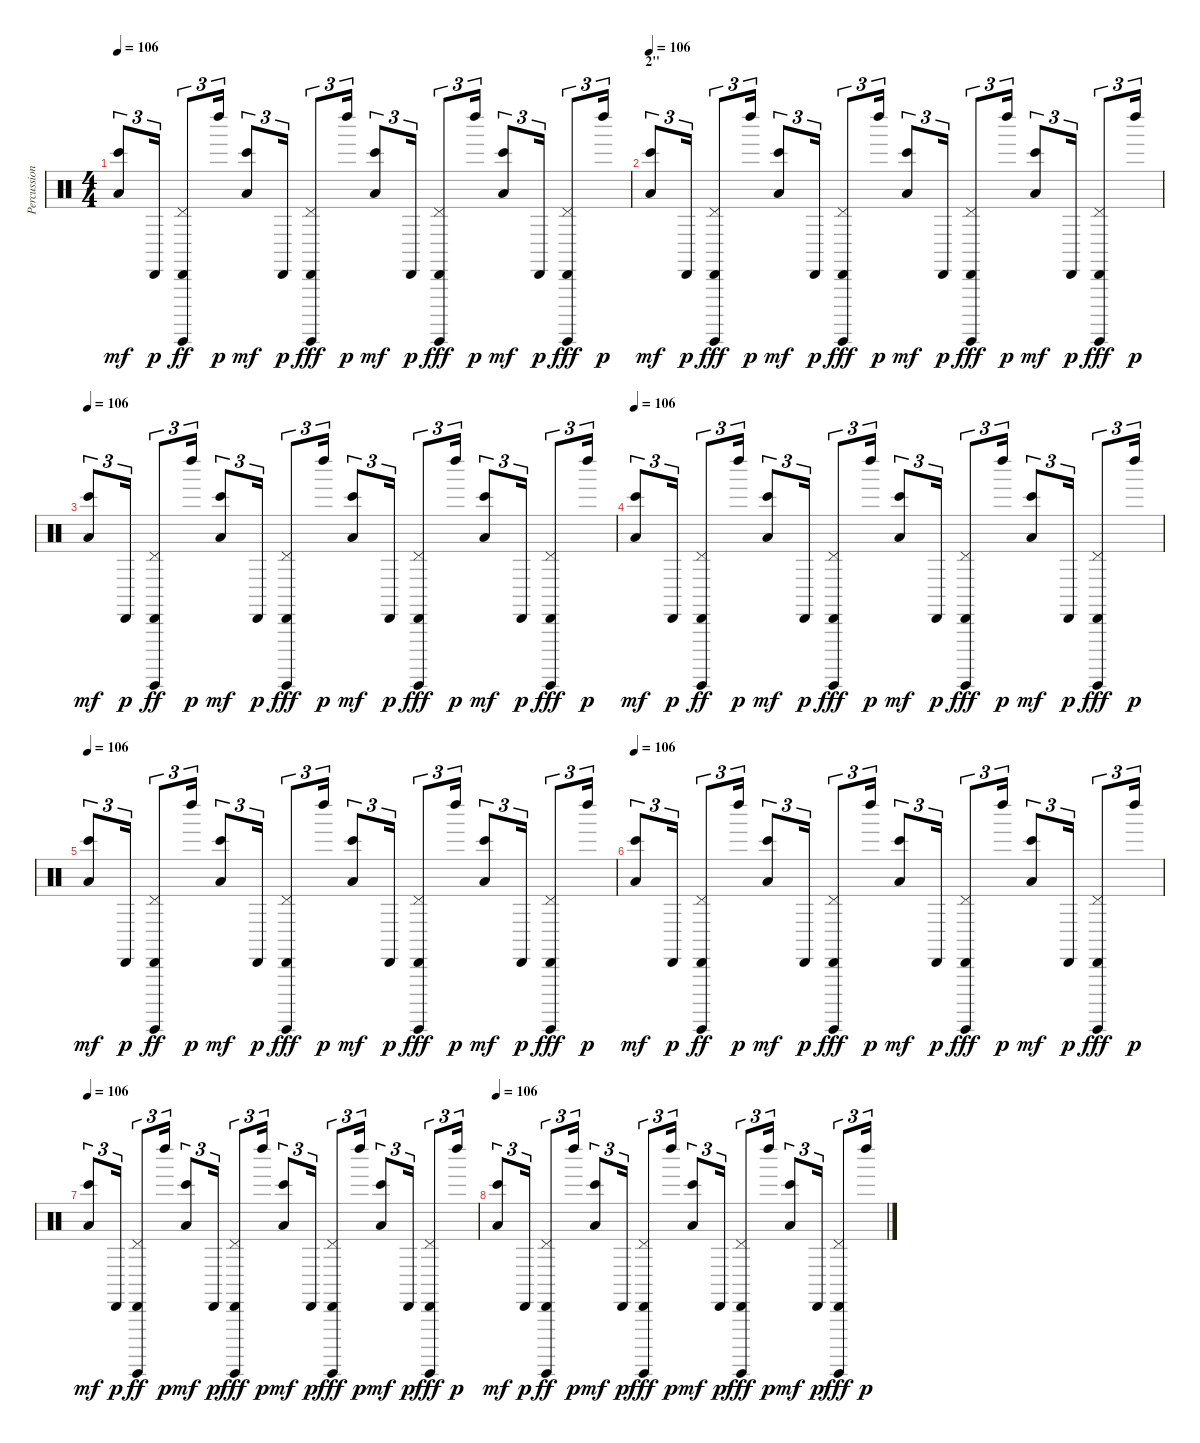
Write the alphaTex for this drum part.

\track ("Percussions" "Percussion") {instrument percussion}
\staff {score}
\articulation defaults
\ts (4 4)
\tempo 106
\clef neutral
\ks c
("Bongo High (hit)" "Low Floor Tom (hit)").8{tu (3 2) dy mf} "Cabasa (hit)".16{tu (3 2) dy p} ("Pedal Hi-Hat (hit)" "Cabasa (hit)" "Guiro (hit)").8{tu (3 2) dy ff} "Left Maraca (hit)".16{tu (3 2) dy p} ("Bongo High (hit)" "Low Floor Tom (hit)").8{tu (3 2) dy mf} "Cabasa (hit)".16{tu (3 2) dy p} ("Pedal Hi-Hat (hit)" "Cabasa (hit)" "Guiro (hit)").8{tu (3 2) dy fff} "Left Maraca (hit)".16{tu (3 2) dy p} ("Bongo High (hit)" "Low Floor Tom (hit)").8{tu (3 2) dy mf} "Cabasa (hit)".16{tu (3 2) dy p} ("Pedal Hi-Hat (hit)" "Cabasa (hit)" "Guiro (hit)").8{tu (3 2) dy fff} "Left Maraca (hit)".16{tu (3 2) dy p} ("Bongo High (hit)" "Low Floor Tom (hit)").8{tu (3 2) dy mf} "Cabasa (hit)".16{tu (3 2) dy p} ("Pedal Hi-Hat (hit)" "Cabasa (hit)" "Guiro (hit)").8{tu (3 2) dy fff} "Left Maraca (hit)".16{tu (3 2) dy p} |
\section ("" "2''")
\tempo 106
("Bongo High (hit)" "Low Floor Tom (hit)").8{tu (3 2) dy mf} "Cabasa (hit)".16{tu (3 2) dy p} ("Pedal Hi-Hat (hit)" "Cabasa (hit)" "Guiro (hit)").8{tu (3 2) dy fff} "Left Maraca (hit)".16{tu (3 2) dy p} ("Bongo High (hit)" "Low Floor Tom (hit)").8{tu (3 2) dy mf} "Cabasa (hit)".16{tu (3 2) dy p} ("Pedal Hi-Hat (hit)" "Cabasa (hit)" "Guiro (hit)").8{tu (3 2) dy fff} "Left Maraca (hit)".16{tu (3 2) dy p} ("Bongo High (hit)" "Low Floor Tom (hit)").8{tu (3 2) dy mf} "Cabasa (hit)".16{tu (3 2) dy p} ("Pedal Hi-Hat (hit)" "Cabasa (hit)" "Guiro (hit)").8{tu (3 2) dy fff} "Left Maraca (hit)".16{tu (3 2) dy p} ("Bongo High (hit)" "Low Floor Tom (hit)").8{tu (3 2) dy mf} "Cabasa (hit)".16{tu (3 2) dy p} ("Pedal Hi-Hat (hit)" "Cabasa (hit)" "Guiro (hit)").8{tu (3 2) dy fff} "Left Maraca (hit)".16{tu (3 2) dy p} |
\tempo 106
("Bongo High (hit)" "Low Floor Tom (hit)").8{tu (3 2) dy mf} "Cabasa (hit)".16{tu (3 2) dy p} ("Pedal Hi-Hat (hit)" "Cabasa (hit)" "Guiro (hit)").8{tu (3 2) dy ff} "Left Maraca (hit)".16{tu (3 2) dy p} ("Bongo High (hit)" "Low Floor Tom (hit)").8{tu (3 2) dy mf} "Cabasa (hit)".16{tu (3 2) dy p} ("Pedal Hi-Hat (hit)" "Cabasa (hit)" "Guiro (hit)").8{tu (3 2) dy fff} "Left Maraca (hit)".16{tu (3 2) dy p} ("Bongo High (hit)" "Low Floor Tom (hit)").8{tu (3 2) dy mf} "Cabasa (hit)".16{tu (3 2) dy p} ("Pedal Hi-Hat (hit)" "Cabasa (hit)" "Guiro (hit)").8{tu (3 2) dy fff} "Left Maraca (hit)".16{tu (3 2) dy p} ("Bongo High (hit)" "Low Floor Tom (hit)").8{tu (3 2) dy mf} "Cabasa (hit)".16{tu (3 2) dy p} ("Pedal Hi-Hat (hit)" "Cabasa (hit)" "Guiro (hit)").8{tu (3 2) dy fff} "Left Maraca (hit)".16{tu (3 2) dy p} |
\tempo 106
("Bongo High (hit)" "Low Floor Tom (hit)").8{tu (3 2) dy mf} "Cabasa (hit)".16{tu (3 2) dy p} ("Pedal Hi-Hat (hit)" "Cabasa (hit)" "Guiro (hit)").8{tu (3 2) dy ff} "Left Maraca (hit)".16{tu (3 2) dy p} ("Bongo High (hit)" "Low Floor Tom (hit)").8{tu (3 2) dy mf} "Cabasa (hit)".16{tu (3 2) dy p} ("Pedal Hi-Hat (hit)" "Cabasa (hit)" "Guiro (hit)").8{tu (3 2) dy fff} "Left Maraca (hit)".16{tu (3 2) dy p} ("Bongo High (hit)" "Low Floor Tom (hit)").8{tu (3 2) dy mf} "Cabasa (hit)".16{tu (3 2) dy p} ("Pedal Hi-Hat (hit)" "Cabasa (hit)" "Guiro (hit)").8{tu (3 2) dy fff} "Left Maraca (hit)".16{tu (3 2) dy p} ("Bongo High (hit)" "Low Floor Tom (hit)").8{tu (3 2) dy mf} "Cabasa (hit)".16{tu (3 2) dy p} ("Pedal Hi-Hat (hit)" "Cabasa (hit)" "Guiro (hit)").8{tu (3 2) dy fff} "Left Maraca (hit)".16{tu (3 2) dy p} |
\tempo 106
("Bongo High (hit)" "Low Floor Tom (hit)").8{tu (3 2) dy mf} "Cabasa (hit)".16{tu (3 2) dy p} ("Pedal Hi-Hat (hit)" "Cabasa (hit)" "Guiro (hit)").8{tu (3 2) dy ff} "Left Maraca (hit)".16{tu (3 2) dy p} ("Bongo High (hit)" "Low Floor Tom (hit)").8{tu (3 2) dy mf} "Cabasa (hit)".16{tu (3 2) dy p} ("Pedal Hi-Hat (hit)" "Cabasa (hit)" "Guiro (hit)").8{tu (3 2) dy fff} "Left Maraca (hit)".16{tu (3 2) dy p} ("Bongo High (hit)" "Low Floor Tom (hit)").8{tu (3 2) dy mf} "Cabasa (hit)".16{tu (3 2) dy p} ("Pedal Hi-Hat (hit)" "Cabasa (hit)" "Guiro (hit)").8{tu (3 2) dy fff} "Left Maraca (hit)".16{tu (3 2) dy p} ("Bongo High (hit)" "Low Floor Tom (hit)").8{tu (3 2) dy mf} "Cabasa (hit)".16{tu (3 2) dy p} ("Pedal Hi-Hat (hit)" "Cabasa (hit)" "Guiro (hit)").8{tu (3 2) dy fff} "Left Maraca (hit)".16{tu (3 2) dy p} |
\tempo 106
("Bongo High (hit)" "Low Floor Tom (hit)").8{tu (3 2) dy mf} "Cabasa (hit)".16{tu (3 2) dy p} ("Pedal Hi-Hat (hit)" "Cabasa (hit)" "Guiro (hit)").8{tu (3 2) dy ff} "Left Maraca (hit)".16{tu (3 2) dy p} ("Bongo High (hit)" "Low Floor Tom (hit)").8{tu (3 2) dy mf} "Cabasa (hit)".16{tu (3 2) dy p} ("Pedal Hi-Hat (hit)" "Cabasa (hit)" "Guiro (hit)").8{tu (3 2) dy fff} "Left Maraca (hit)".16{tu (3 2) dy p} ("Bongo High (hit)" "Low Floor Tom (hit)").8{tu (3 2) dy mf} "Cabasa (hit)".16{tu (3 2) dy p} ("Pedal Hi-Hat (hit)" "Cabasa (hit)" "Guiro (hit)").8{tu (3 2) dy fff} "Left Maraca (hit)".16{tu (3 2) dy p} ("Bongo High (hit)" "Low Floor Tom (hit)").8{tu (3 2) dy mf} "Cabasa (hit)".16{tu (3 2) dy p} ("Pedal Hi-Hat (hit)" "Cabasa (hit)" "Guiro (hit)").8{tu (3 2) dy fff} "Left Maraca (hit)".16{tu (3 2) dy p} |
\tempo 106
("Bongo High (hit)" "Low Floor Tom (hit)").8{tu (3 2) dy mf} "Cabasa (hit)".16{tu (3 2) dy p} ("Pedal Hi-Hat (hit)" "Cabasa (hit)" "Guiro (hit)").8{tu (3 2) dy ff} "Left Maraca (hit)".16{tu (3 2) dy p} ("Bongo High (hit)" "Low Floor Tom (hit)").8{tu (3 2) dy mf} "Cabasa (hit)".16{tu (3 2) dy p} ("Pedal Hi-Hat (hit)" "Cabasa (hit)" "Guiro (hit)").8{tu (3 2) dy fff} "Left Maraca (hit)".16{tu (3 2) dy p} ("Bongo High (hit)" "Low Floor Tom (hit)").8{tu (3 2) dy mf} "Cabasa (hit)".16{tu (3 2) dy p} ("Pedal Hi-Hat (hit)" "Cabasa (hit)" "Guiro (hit)").8{tu (3 2) dy fff} "Left Maraca (hit)".16{tu (3 2) dy p} ("Bongo High (hit)" "Low Floor Tom (hit)").8{tu (3 2) dy mf} "Cabasa (hit)".16{tu (3 2) dy p} ("Pedal Hi-Hat (hit)" "Cabasa (hit)" "Guiro (hit)").8{tu (3 2) dy fff} "Left Maraca (hit)".16{tu (3 2) dy p} |
\tempo 106
("Bongo High (hit)" "Low Floor Tom (hit)").8{tu (3 2) dy mf} "Cabasa (hit)".16{tu (3 2) dy p} ("Pedal Hi-Hat (hit)" "Cabasa (hit)" "Guiro (hit)").8{tu (3 2) dy ff} "Left Maraca (hit)".16{tu (3 2) dy p} ("Bongo High (hit)" "Low Floor Tom (hit)").8{tu (3 2) dy mf} "Cabasa (hit)".16{tu (3 2) dy p} ("Pedal Hi-Hat (hit)" "Cabasa (hit)" "Guiro (hit)").8{tu (3 2) dy fff} "Left Maraca (hit)".16{tu (3 2) dy p} ("Bongo High (hit)" "Low Floor Tom (hit)").8{tu (3 2) dy mf} "Cabasa (hit)".16{tu (3 2) dy p} ("Pedal Hi-Hat (hit)" "Cabasa (hit)" "Guiro (hit)").8{tu (3 2) dy fff} "Left Maraca (hit)".16{tu (3 2) dy p} ("Bongo High (hit)" "Low Floor Tom (hit)").8{tu (3 2) dy mf} "Cabasa (hit)".16{tu (3 2) dy p} ("Pedal Hi-Hat (hit)" "Cabasa (hit)" "Guiro (hit)").8{tu (3 2) dy fff} "Left Maraca (hit)".16{tu (3 2) dy p}
